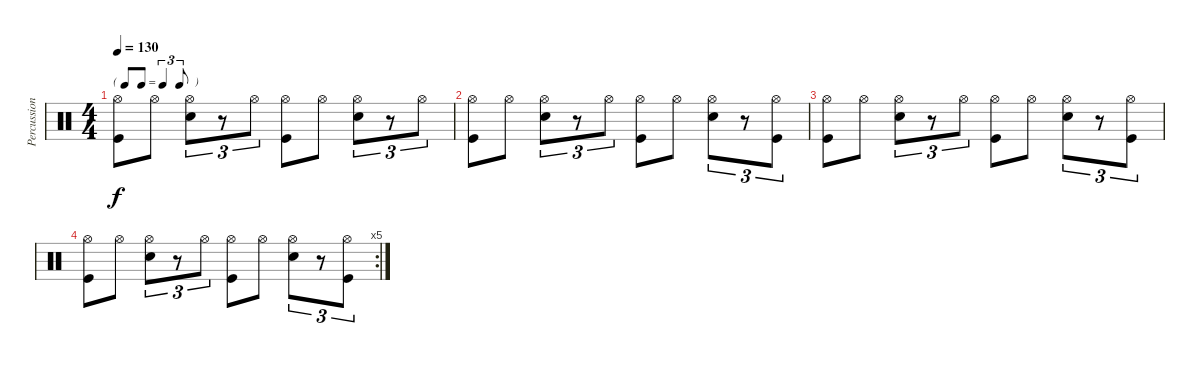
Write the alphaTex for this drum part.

\track ("Percussion" "Percussion") {instrument percussion}
\staff {score}
\articulation defaults
\ts (4 4)
\tf triplet8th
\tempo 130
\clef neutral
\ks c
("Hi-Hat (open)" "Kick (hit)").8{dy f} "Hi-Hat (open)".8 ("Hi-Hat (open)" "Snare (hit) 2").8{tu (3 2)} r.8{tu (3 2)} "Hi-Hat (open)".8{tu (3 2)} ("Hi-Hat (open)" "Kick (hit)").8 "Hi-Hat (open)".8 ("Hi-Hat (open)" "Snare (hit) 2").8{tu (3 2)} r.8{tu (3 2)} "Hi-Hat (open)".8{tu (3 2)} |
("Hi-Hat (open)" "Kick (hit)").8 "Hi-Hat (open)".8 ("Hi-Hat (open)" "Snare (hit) 2").8{tu (3 2)} r.8{tu (3 2)} "Hi-Hat (open)".8{tu (3 2)} ("Hi-Hat (open)" "Kick (hit)").8 "Hi-Hat (open)".8 ("Hi-Hat (open)" "Snare (hit) 2").8{tu (3 2)} r.8{tu (3 2)} ("Hi-Hat (open)" "Kick (hit)").8{tu (3 2)} |
("Hi-Hat (open)" "Kick (hit)").8 "Hi-Hat (open)".8 ("Hi-Hat (open)" "Snare (hit) 2").8{tu (3 2)} r.8{tu (3 2)} "Hi-Hat (open)".8{tu (3 2)} ("Hi-Hat (open)" "Kick (hit)").8 "Hi-Hat (open)".8 ("Hi-Hat (open)" "Snare (hit) 2").8{tu (3 2)} r.8{tu (3 2)} ("Hi-Hat (open)" "Kick (hit)").8{tu (3 2)} |
\rc 5
("Hi-Hat (open)" "Kick (hit)").8 "Hi-Hat (open)".8 ("Hi-Hat (open)" "Snare (hit) 2").8{tu (3 2)} r.8{tu (3 2)} "Hi-Hat (open)".8{tu (3 2)} ("Hi-Hat (open)" "Kick (hit)").8 "Hi-Hat (open)".8 ("Hi-Hat (open)" "Snare (hit) 2").8{tu (3 2)} r.8{tu (3 2)} ("Hi-Hat (open)" "Kick (hit)").8{tu (3 2)}
